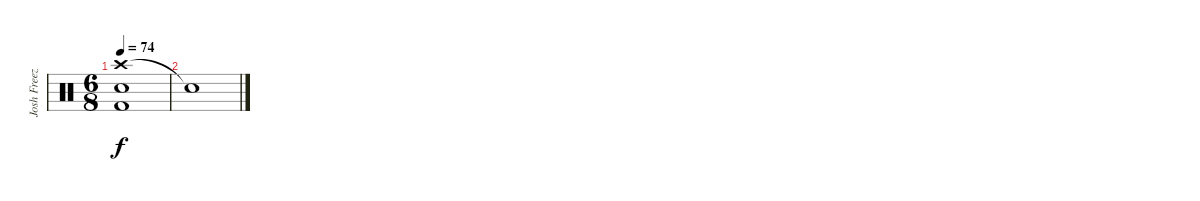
\track ("Josh Freeze - Drums" "Josh Freez") {instrument percussion}
\staff {score}
\articulation defaults
\ts (6 8)
\tempo 74
\clef neutral
\ks c
("Crash high (hit)" "Electric Snare (hit)" "Kick (hit) 2").1{dy f} |
"Snare (hit)"{t}.1
